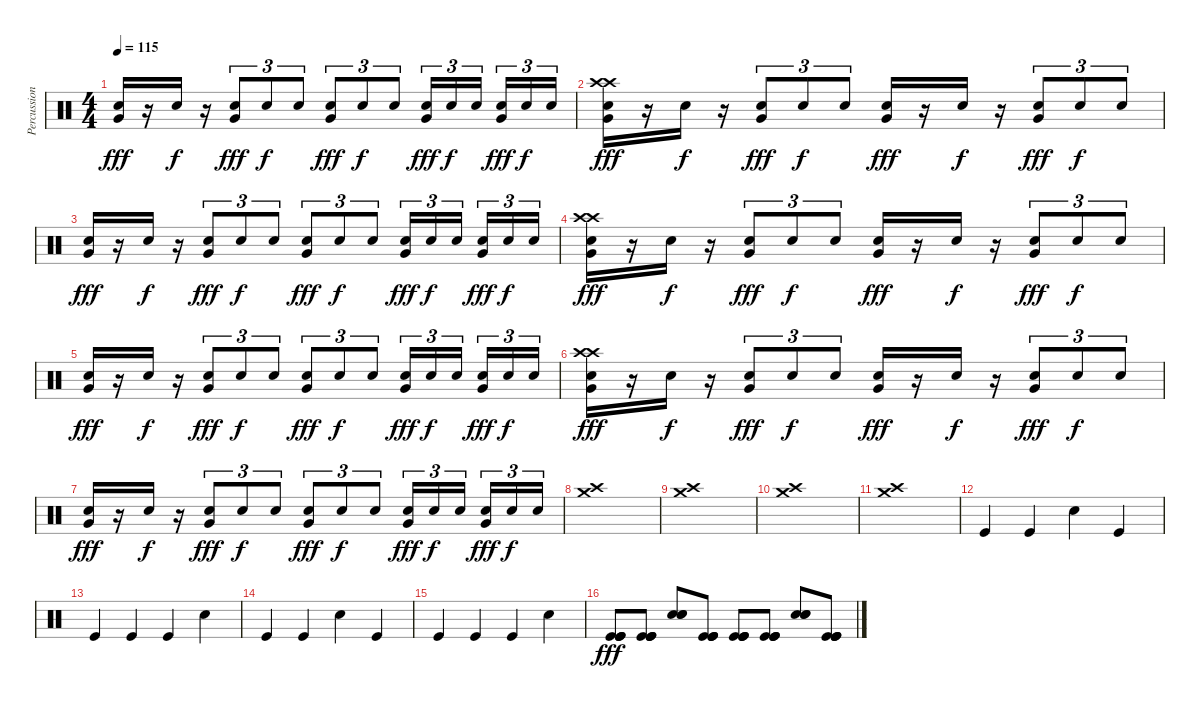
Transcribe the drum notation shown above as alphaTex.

\track ("Percussions" "Percussion") {instrument percussion}
\staff {score}
\articulation defaults
\ts (4 4)
\tempo 115
\clef neutral
\ks c
("Electric Snare (hit)" "Very Low Tom (hit)").16{dy fff} r.16 "Electric Snare (hit)".16{dy f} r.16 ("Electric Snare (hit)" "Very Low Tom (hit)").8{tu (3 2) dy fff} "Electric Snare (hit)".8{tu (3 2) dy f} "Electric Snare (hit)".8{tu (3 2)} ("Electric Snare (hit)" "Very Low Tom (hit)").8{tu (3 2) dy fff} "Electric Snare (hit)".8{tu (3 2) dy f} "Electric Snare (hit)".8{tu (3 2)} ("Electric Snare (hit)" "Very Low Tom (hit)").16{tu (3 2) dy fff} "Electric Snare (hit)".16{tu (3 2) dy f} "Electric Snare (hit)".16{tu (3 2)} ("Electric Snare (hit)" "Very Low Tom (hit)").16{tu (3 2) dy fff} "Electric Snare (hit)".16{tu (3 2) dy f} "Electric Snare (hit)".16{tu (3 2)} |
("Crash high (hit)" "Crash high (hit)" "Electric Snare (hit)" "Very Low Tom (hit)").16{dy fff} r.16 "Electric Snare (hit)".16{dy f} r.16 ("Electric Snare (hit)" "Very Low Tom (hit)").8{tu (3 2) dy fff} "Electric Snare (hit)".8{tu (3 2) dy f} "Electric Snare (hit)".8{tu (3 2)} ("Electric Snare (hit)" "Very Low Tom (hit)").16{dy fff} r.16 "Electric Snare (hit)".16{dy f} r.16 ("Electric Snare (hit)" "Very Low Tom (hit)").8{tu (3 2) dy fff} "Electric Snare (hit)".8{tu (3 2) dy f} "Electric Snare (hit)".8{tu (3 2)} |
("Electric Snare (hit)" "Very Low Tom (hit)").16{dy fff} r.16 "Electric Snare (hit)".16{dy f} r.16 ("Electric Snare (hit)" "Very Low Tom (hit)").8{tu (3 2) dy fff} "Electric Snare (hit)".8{tu (3 2) dy f} "Electric Snare (hit)".8{tu (3 2)} ("Electric Snare (hit)" "Very Low Tom (hit)").8{tu (3 2) dy fff} "Electric Snare (hit)".8{tu (3 2) dy f} "Electric Snare (hit)".8{tu (3 2)} ("Electric Snare (hit)" "Very Low Tom (hit)").16{tu (3 2) dy fff} "Electric Snare (hit)".16{tu (3 2) dy f} "Electric Snare (hit)".16{tu (3 2)} ("Electric Snare (hit)" "Very Low Tom (hit)").16{tu (3 2) dy fff} "Electric Snare (hit)".16{tu (3 2) dy f} "Electric Snare (hit)".16{tu (3 2)} |
("Crash high (hit)" "Crash high (hit)" "Electric Snare (hit)" "Very Low Tom (hit)").16{dy fff} r.16 "Electric Snare (hit)".16{dy f} r.16 ("Electric Snare (hit)" "Very Low Tom (hit)").8{tu (3 2) dy fff} "Electric Snare (hit)".8{tu (3 2) dy f} "Electric Snare (hit)".8{tu (3 2)} ("Electric Snare (hit)" "Very Low Tom (hit)").16{dy fff} r.16 "Electric Snare (hit)".16{dy f} r.16 ("Electric Snare (hit)" "Very Low Tom (hit)").8{tu (3 2) dy fff} "Electric Snare (hit)".8{tu (3 2) dy f} "Electric Snare (hit)".8{tu (3 2)} |
("Electric Snare (hit)" "Very Low Tom (hit)").16{dy fff} r.16 "Electric Snare (hit)".16{dy f} r.16 ("Electric Snare (hit)" "Very Low Tom (hit)").8{tu (3 2) dy fff} "Electric Snare (hit)".8{tu (3 2) dy f} "Electric Snare (hit)".8{tu (3 2)} ("Electric Snare (hit)" "Very Low Tom (hit)").8{tu (3 2) dy fff} "Electric Snare (hit)".8{tu (3 2) dy f} "Electric Snare (hit)".8{tu (3 2)} ("Electric Snare (hit)" "Very Low Tom (hit)").16{tu (3 2) dy fff} "Electric Snare (hit)".16{tu (3 2) dy f} "Electric Snare (hit)".16{tu (3 2)} ("Electric Snare (hit)" "Very Low Tom (hit)").16{tu (3 2) dy fff} "Electric Snare (hit)".16{tu (3 2) dy f} "Electric Snare (hit)".16{tu (3 2)} |
("Crash high (hit)" "Crash high (hit)" "Electric Snare (hit)" "Very Low Tom (hit)").16{dy fff} r.16 "Electric Snare (hit)".16{dy f} r.16 ("Electric Snare (hit)" "Very Low Tom (hit)").8{tu (3 2) dy fff} "Electric Snare (hit)".8{tu (3 2) dy f} "Electric Snare (hit)".8{tu (3 2)} ("Electric Snare (hit)" "Very Low Tom (hit)").16{dy fff} r.16 "Electric Snare (hit)".16{dy f} r.16 ("Electric Snare (hit)" "Very Low Tom (hit)").8{tu (3 2) dy fff} "Electric Snare (hit)".8{tu (3 2) dy f} "Electric Snare (hit)".8{tu (3 2)} |
("Electric Snare (hit)" "Very Low Tom (hit)").16{dy fff} r.16 "Electric Snare (hit)".16{dy f} r.16 ("Electric Snare (hit)" "Very Low Tom (hit)").8{tu (3 2) dy fff} "Electric Snare (hit)".8{tu (3 2) dy f} "Electric Snare (hit)".8{tu (3 2)} ("Electric Snare (hit)" "Very Low Tom (hit)").8{tu (3 2) dy fff} "Electric Snare (hit)".8{tu (3 2) dy f} "Electric Snare (hit)".8{tu (3 2)} ("Electric Snare (hit)" "Very Low Tom (hit)").16{tu (3 2) dy fff} "Electric Snare (hit)".16{tu (3 2) dy f} "Electric Snare (hit)".16{tu (3 2)} ("Electric Snare (hit)" "Very Low Tom (hit)").16{tu (3 2) dy fff} "Electric Snare (hit)".16{tu (3 2) dy f} "Electric Snare (hit)".16{tu (3 2)} |
("Crash medium (hit)" "Crash high (hit)").1 |
("Crash medium (hit)" "Crash high (hit)").1 |
("Crash medium (hit)" "Crash high (hit)").1 |
("Crash medium (hit)" "Crash high (hit)").1 |
"Kick (hit)".4 "Kick (hit)".4 "Electric Snare (hit)".4 "Kick (hit)".4 |
"Kick (hit)".4 "Kick (hit)".4 "Kick (hit)".4 "Electric Snare (hit)".4 |
"Kick (hit)".4 "Kick (hit)".4 "Electric Snare (hit)".4 "Kick (hit)".4 |
"Kick (hit)".4 "Kick (hit)".4 "Kick (hit)".4 "Electric Snare (hit)".4 |
\section ("" "")
("Kick (hit)" "Kick (hit)" "Kick (hit)" "Kick (hit)").8{dy fff} ("Kick (hit)" "Kick (hit)" "Kick (hit)" "Kick (hit)").8 ("Electric Snare (hit)" "Electric Snare (hit)" "Electric Snare (hit)").8 ("Kick (hit)" "Kick (hit)" "Kick (hit)" "Kick (hit)").8 ("Kick (hit)" "Kick (hit)" "Kick (hit)" "Kick (hit)").8 ("Kick (hit)" "Kick (hit)" "Kick (hit)" "Kick (hit)").8 ("Electric Snare (hit)" "Electric Snare (hit)" "Electric Snare (hit)").8 ("Kick (hit)" "Kick (hit)" "Kick (hit)" "Kick (hit)").8
